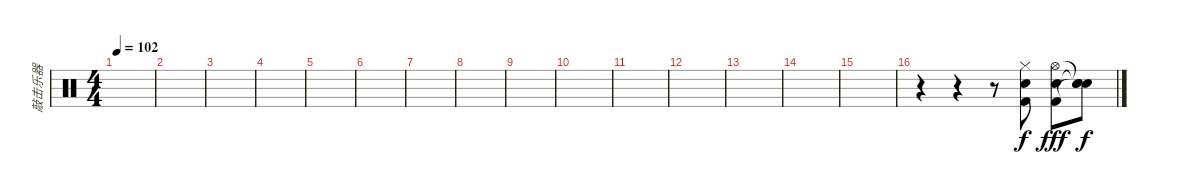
\track ("敲击乐器" "敲击乐器") {instrument percussion}
\staff {score}
\articulation defaults
\ts (4 4)
\tempo 102
\clef neutral
\ks c
|
|
|
|
|
|
|
|
|
|
|
|
|
|
|
r.4 r.4 r.8 ("Hi-Hat (closed)" "Snare (hit) 2" "Kick (hit) 2").8 ("Hi-Hat (open)" "Snare (hit) 2" "Kick (hit) 2").8{dy fff} ("Snare (hit)"{t} "Snare (hit)"{t} "Snare (hit)"{t}).8{dy f}
